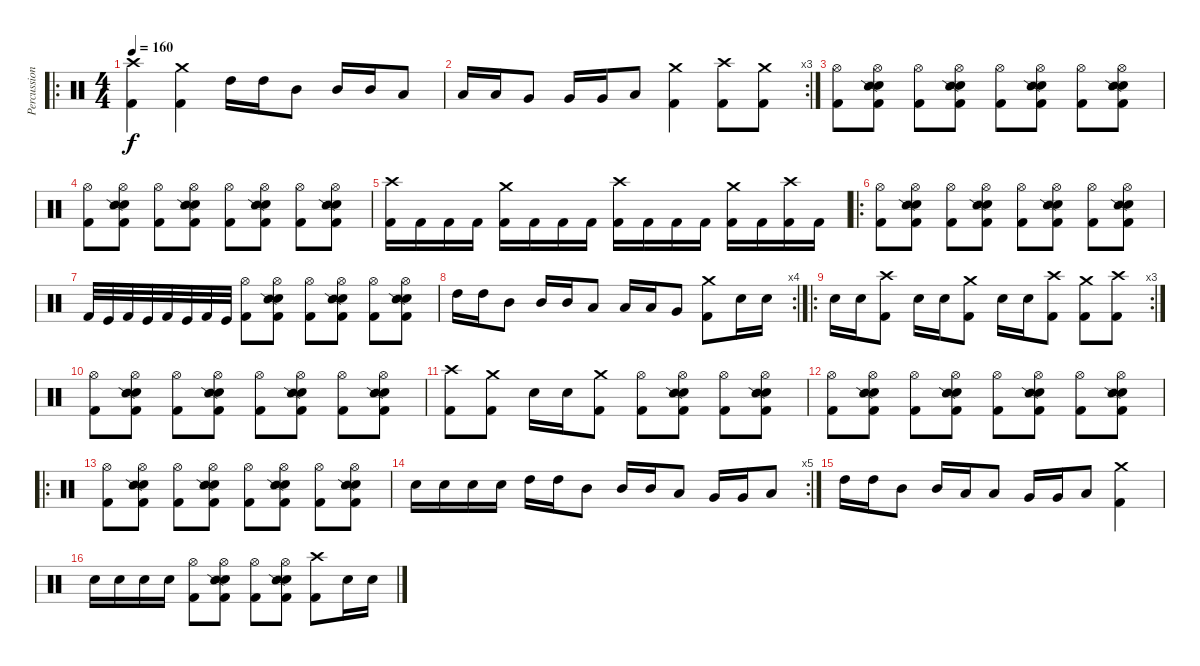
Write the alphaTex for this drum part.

\track ("Percussion" "Percussion") {instrument percussion}
\staff {score}
\articulation defaults
\ro
\ts (4 4)
\tempo 160
\clef neutral
\ks c
("Crash high (hit)" "Kick (hit) 2").4{dy f} ("Crash medium (hit)" "Kick (hit) 2").4 "High Tom (hit)".16 "High Tom (hit)".16 "Mid Tom (hit)".8 "Mid Tom (hit)".16 "Mid Tom (hit)".16 "Low Tom (hit)".8 |
\rc 3 "Low Tom (hit)".16 "Low Tom (hit)".16 "Very Low Tom (hit)".8 "Very Low Tom (hit)".16 "Very Low Tom (hit)".16 "Low Floor Tom (hit)".8
("Crash medium (hit)" "Kick (hit) 2").4 ("Crash high (hit)" "Kick (hit) 2").8 ("Crash medium (hit)" "Kick (hit) 2").8 |
("Hi-Hat (open)" "Kick (hit) 2").8 ("Hi-Hat (open)" "Electric Snare (hit)" "Snare (side stick) 2" "Kick (hit) 2").8 ("Hi-Hat (open)" "Kick (hit) 2").8 ("Hi-Hat (open)" "Electric Snare (hit)" "Snare (side stick) 2" "Kick (hit) 2").8 ("Hi-Hat (open)" "Kick (hit) 2").8 ("Hi-Hat (open)" "Electric Snare (hit)" "Snare (side stick) 2" "Kick (hit) 2").8 ("Hi-Hat (open)" "Kick (hit) 2").8 ("Hi-Hat (open)" "Electric Snare (hit)" "Snare (side stick) 2" "Kick (hit) 2").8 |
("Hi-Hat (open)" "Kick (hit) 2").8 ("Hi-Hat (open)" "Electric Snare (hit)" "Snare (side stick) 2" "Kick (hit) 2").8 ("Hi-Hat (open)" "Kick (hit) 2").8 ("Hi-Hat (open)" "Electric Snare (hit)" "Snare (side stick) 2" "Kick (hit) 2").8 ("Hi-Hat (open)" "Kick (hit) 2").8 ("Hi-Hat (open)" "Electric Snare (hit)" "Snare (side stick) 2" "Kick (hit) 2").8 ("Hi-Hat (open)" "Kick (hit) 2").8 ("Hi-Hat (open)" "Electric Snare (hit)" "Snare (side stick) 2" "Kick (hit) 2").8 |
("Crash high (hit)" "Kick (hit) 2").16 "Kick (hit) 2".16 "Kick (hit) 2".16 "Kick (hit) 2".16 ("Crash medium (hit)" "Kick (hit) 2").16 "Kick (hit) 2".16 "Kick (hit) 2".16 "Kick (hit) 2".16 ("Crash high (hit)" "Kick (hit) 2").16 "Kick (hit) 2".16 "Kick (hit) 2".16 "Kick (hit) 2".16 ("Crash medium (hit)" "Kick (hit) 2").16 "Kick (hit) 2".16 ("Crash high (hit)" "Kick (hit) 2").16 "Kick (hit) 2".16 |
\ro
("Hi-Hat (open)" "Kick (hit) 2").8 ("Hi-Hat (open)" "Electric Snare (hit)" "Snare (side stick) 2" "Kick (hit) 2").8 ("Hi-Hat (open)" "Kick (hit) 2").8 ("Hi-Hat (open)" "Electric Snare (hit)" "Snare (side stick) 2" "Kick (hit) 2").8 ("Hi-Hat (open)" "Kick (hit) 2").8 ("Hi-Hat (open)" "Electric Snare (hit)" "Snare (side stick) 2" "Kick (hit) 2").8 ("Hi-Hat (open)" "Kick (hit) 2").8 ("Hi-Hat (open)" "Electric Snare (hit)" "Snare (side stick) 2" "Kick (hit) 2").8 |
"Kick (hit) 2".32 "Kick (hit)".32 "Kick (hit) 2".32 "Kick (hit)".32 "Kick (hit) 2".32 "Kick (hit)".32 "Kick (hit) 2".32 "Kick (hit)".32 ("Hi-Hat (open)" "Kick (hit) 2").8 ("Hi-Hat (open)" "Electric Snare (hit)" "Snare (side stick) 2" "Kick (hit) 2").8 ("Hi-Hat (open)" "Kick (hit) 2").8 ("Hi-Hat (open)" "Electric Snare (hit)" "Snare (side stick) 2" "Kick (hit) 2").8 ("Hi-Hat (open)" "Kick (hit) 2").8 ("Hi-Hat (open)" "Electric Snare (hit)" "Snare (side stick) 2" "Kick (hit) 2").8 |
\rc 4 "High Tom (hit)".16 "High Tom (hit)".16 "Mid Tom (hit)".8 "Mid Tom (hit)".16 "Mid Tom (hit)".16 "Low Tom (hit)".8 "Low Tom (hit)".16 "Low Tom (hit)".16 "Very Low Tom (hit)".8
("Crash medium (hit)" "Kick (hit) 2").8 "Electric Snare (hit)".16 "Electric Snare (hit)".16 |
\ro
\rc 3 "Electric Snare (hit)".16 "Electric Snare (hit)".16
("Crash high (hit)" "Kick (hit) 2").8 "Electric Snare (hit)".16 "Electric Snare (hit)".16 ("Crash medium (hit)" "Kick (hit) 2").8 "Electric Snare (hit)".16 "Electric Snare (hit)".16 ("Crash high (hit)" "Kick (hit) 2").8 ("Crash medium (hit)" "Kick (hit) 2").8 ("Crash high (hit)" "Kick (hit) 2").8 |
("Hi-Hat (open)" "Kick (hit) 2").8 ("Hi-Hat (open)" "Electric Snare (hit)" "Snare (side stick) 2" "Kick (hit) 2").8 ("Hi-Hat (open)" "Kick (hit) 2").8 ("Hi-Hat (open)" "Electric Snare (hit)" "Snare (side stick) 2" "Kick (hit) 2").8 ("Hi-Hat (open)" "Kick (hit) 2").8 ("Hi-Hat (open)" "Electric Snare (hit)" "Snare (side stick) 2" "Kick (hit) 2").8 ("Hi-Hat (open)" "Kick (hit) 2").8 ("Hi-Hat (open)" "Electric Snare (hit)" "Snare (side stick) 2" "Kick (hit) 2").8 |
("Crash high (hit)" "Kick (hit) 2").8 ("Crash medium (hit)" "Kick (hit) 2").8 "Electric Snare (hit)".16 "Electric Snare (hit)".16 ("Crash medium (hit)" "Kick (hit) 2").8 ("Hi-Hat (open)" "Kick (hit) 2").8 ("Hi-Hat (open)" "Electric Snare (hit)" "Snare (side stick) 2" "Kick (hit) 2").8 ("Hi-Hat (open)" "Kick (hit) 2").8 ("Hi-Hat (open)" "Electric Snare (hit)" "Snare (side stick) 2" "Kick (hit) 2").8 |
("Hi-Hat (open)" "Kick (hit) 2").8 ("Hi-Hat (open)" "Electric Snare (hit)" "Snare (side stick) 2" "Kick (hit) 2").8 ("Hi-Hat (open)" "Kick (hit) 2").8 ("Hi-Hat (open)" "Electric Snare (hit)" "Snare (side stick) 2" "Kick (hit) 2").8 ("Hi-Hat (open)" "Kick (hit) 2").8 ("Hi-Hat (open)" "Electric Snare (hit)" "Snare (side stick) 2" "Kick (hit) 2").8 ("Hi-Hat (open)" "Kick (hit) 2").8 ("Hi-Hat (open)" "Electric Snare (hit)" "Snare (side stick) 2" "Kick (hit) 2").8 |
\ro
("Hi-Hat (open)" "Kick (hit) 2").8 ("Hi-Hat (open)" "Electric Snare (hit)" "Snare (side stick) 2" "Kick (hit) 2").8 ("Hi-Hat (open)" "Kick (hit) 2").8 ("Hi-Hat (open)" "Electric Snare (hit)" "Snare (side stick) 2" "Kick (hit) 2").8 ("Hi-Hat (open)" "Kick (hit) 2").8 ("Hi-Hat (open)" "Electric Snare (hit)" "Snare (side stick) 2" "Kick (hit) 2").8 ("Hi-Hat (open)" "Kick (hit) 2").8 ("Hi-Hat (open)" "Electric Snare (hit)" "Snare (side stick) 2" "Kick (hit) 2").8 |
\rc 5 "Electric Snare (hit)".16 "Electric Snare (hit)".16 "Electric Snare (hit)".16 "Electric Snare (hit)".16 "High Tom (hit)".16 "High Tom (hit)".16 "Mid Tom (hit)".8 "Mid Tom (hit)".16 "Mid Tom (hit)".16 "Low Tom (hit)".8 "Very Low Tom (hit)".16 "Very Low Tom (hit)".16 "Low Floor Tom (hit)".8
|
"High Tom (hit)".16 "High Tom (hit)".16 "Mid Tom (hit)".8 "Mid Tom (hit)".16 "Low Tom (hit)".16 "Low Tom (hit)".8 "Very Low Tom (hit)".16 "Very Low Tom (hit)".16 "Low Floor Tom (hit)".8 ("Crash medium (hit)" "Kick (hit) 2").4 |
"Electric Snare (hit)".16 "Electric Snare (hit)".16 "Electric Snare (hit)".16 "Electric Snare (hit)".16 ("Hi-Hat (open)" "Kick (hit) 2").8 ("Hi-Hat (open)" "Electric Snare (hit)" "Snare (side stick) 2" "Kick (hit) 2").8 ("Hi-Hat (open)" "Kick (hit) 2").8 ("Hi-Hat (open)" "Electric Snare (hit)" "Snare (side stick) 2" "Kick (hit) 2").8 ("Crash high (hit)" "Kick (hit) 2").8 "Electric Snare (hit)".16 "Electric Snare (hit)".16
